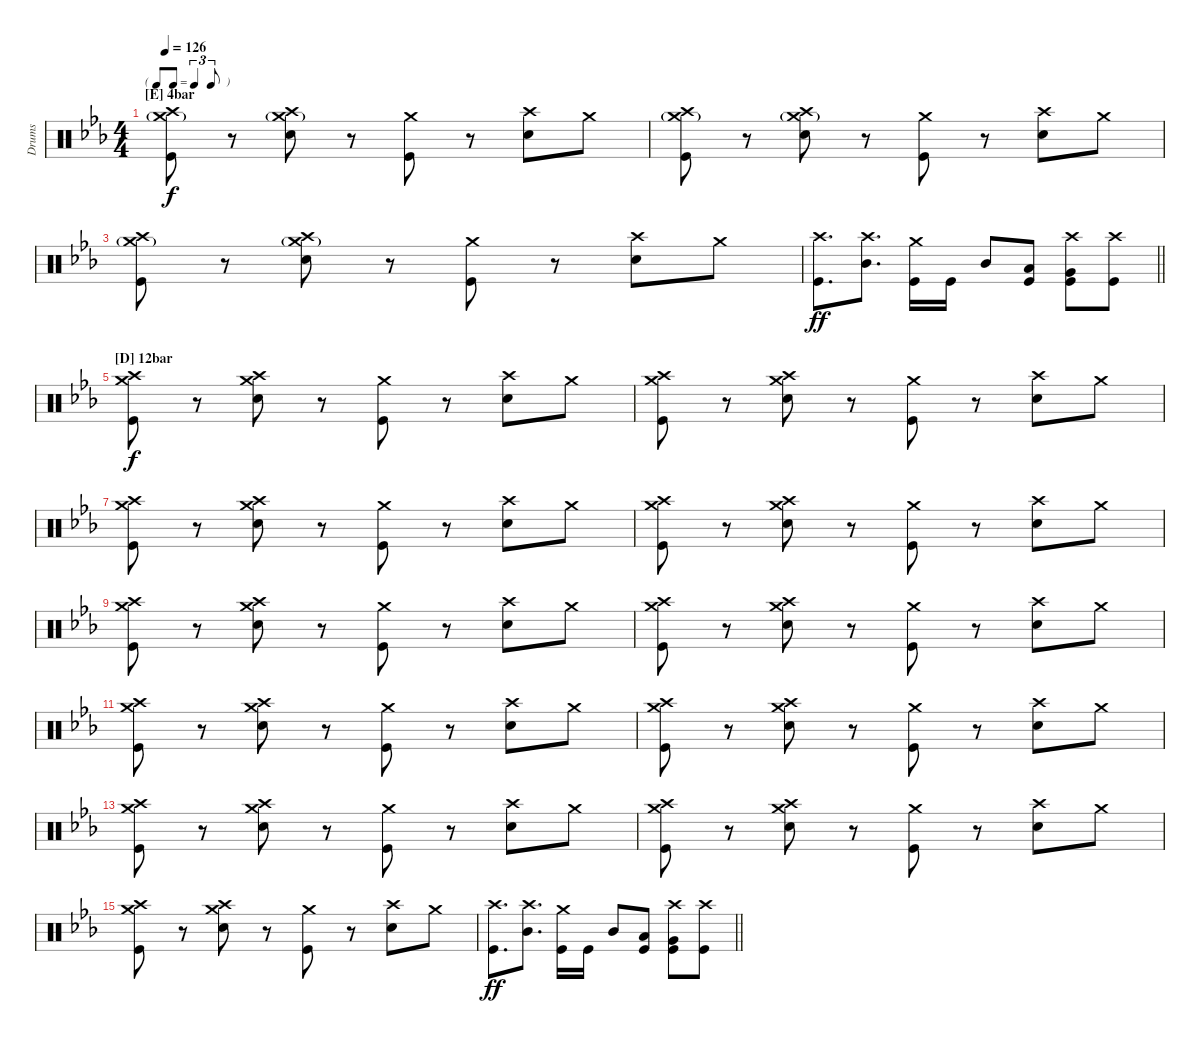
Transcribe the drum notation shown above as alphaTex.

\bracketExtendMode nobrackets
\otherSystemsTrackNameOrientation horizontal
\defaultBarNumberDisplay FirstOfSystem
\track ("Drumkit" "Drums") {instrument percussion}
\staff {score}
\articulation defaults
\ts (4 4)
\tf triplet8th
\section ("E" "4bar")
\tempo 126
\clef neutral
\ks cminor
("Kick (hit)" "Crash medium (hit)"{g} "Crash high (hit)").8{dy f} r.8 ("Snare (hit) 2" "Crash medium (hit)"{g} "Crash high (hit)").8 r.8 ("Kick (hit)" "Crash medium (hit)").8 r.8 ("Snare (hit) 2" "Crash high (hit)").8 "Crash medium (hit)".8 |
("Kick (hit)" "Crash medium (hit)"{g} "Crash high (hit)").8 r.8 ("Snare (hit) 2" "Crash medium (hit)"{g} "Crash high (hit)").8 r.8 ("Kick (hit)" "Crash medium (hit)").8 r.8 ("Snare (hit) 2" "Crash high (hit)").8 "Crash medium (hit)".8 |
("Kick (hit)" "Crash medium (hit)"{g} "Crash high (hit)").8 r.8 ("Snare (hit) 2" "Crash medium (hit)"{g} "Crash high (hit)").8 r.8 ("Kick (hit)" "Crash medium (hit)").8 r.8 ("Snare (hit) 2" "Crash high (hit)").8 "Crash medium (hit)".8 |
\barLineRight lightlight
("Kick (hit)" "Crash high (hit)").8{d dy ff} ("Mid Tom (hit)" "Crash high (hit)").8{d} ("Kick (hit)" "Crash medium (hit)").16 "Kick (hit)".16 "Mid Tom (hit)".8 ("Low Tom (hit)" "Kick (hit)").8 ("Kick (hit)" "Very Low Tom (hit)" "Crash high (hit)").8 ("Kick (hit)" "Crash high (hit)").8 |
\section ("D" "12bar")
("Kick (hit)" "Crash medium (hit)" "Crash high (hit)").8{dy f} r.8 ("Snare (hit) 2" "Crash medium (hit)" "Crash high (hit)").8 r.8 ("Kick (hit)" "Crash medium (hit)").8 r.8 ("Snare (hit) 2" "Crash high (hit)").8 "Crash medium (hit)".8 |
("Kick (hit)" "Crash medium (hit)" "Crash high (hit)").8 r.8 ("Snare (hit) 2" "Crash medium (hit)" "Crash high (hit)").8 r.8 ("Kick (hit)" "Crash medium (hit)").8 r.8 ("Snare (hit) 2" "Crash high (hit)").8 "Crash medium (hit)".8 |
("Kick (hit)" "Crash medium (hit)" "Crash high (hit)").8 r.8 ("Snare (hit) 2" "Crash medium (hit)" "Crash high (hit)").8 r.8 ("Kick (hit)" "Crash medium (hit)").8 r.8 ("Snare (hit) 2" "Crash high (hit)").8 "Crash medium (hit)".8 |
("Kick (hit)" "Crash medium (hit)" "Crash high (hit)").8 r.8 ("Snare (hit) 2" "Crash medium (hit)" "Crash high (hit)").8 r.8 ("Kick (hit)" "Crash medium (hit)").8 r.8 ("Snare (hit) 2" "Crash high (hit)").8 "Crash medium (hit)".8 |
("Kick (hit)" "Crash medium (hit)" "Crash high (hit)").8 r.8 ("Snare (hit) 2" "Crash medium (hit)" "Crash high (hit)").8 r.8 ("Kick (hit)" "Crash medium (hit)").8 r.8 ("Snare (hit) 2" "Crash high (hit)").8 "Crash medium (hit)".8 |
("Kick (hit)" "Crash medium (hit)" "Crash high (hit)").8 r.8 ("Snare (hit) 2" "Crash medium (hit)" "Crash high (hit)").8 r.8 ("Kick (hit)" "Crash medium (hit)").8 r.8 ("Snare (hit) 2" "Crash high (hit)").8 "Crash medium (hit)".8 |
("Kick (hit)" "Crash medium (hit)" "Crash high (hit)").8 r.8 ("Snare (hit) 2" "Crash medium (hit)" "Crash high (hit)").8 r.8 ("Kick (hit)" "Crash medium (hit)").8 r.8 ("Snare (hit) 2" "Crash high (hit)").8 "Crash medium (hit)".8 |
("Kick (hit)" "Crash medium (hit)" "Crash high (hit)").8 r.8 ("Snare (hit) 2" "Crash medium (hit)" "Crash high (hit)").8 r.8 ("Kick (hit)" "Crash medium (hit)").8 r.8 ("Snare (hit) 2" "Crash high (hit)").8 "Crash medium (hit)".8 |
("Kick (hit)" "Crash medium (hit)" "Crash high (hit)").8 r.8 ("Snare (hit) 2" "Crash medium (hit)" "Crash high (hit)").8 r.8 ("Kick (hit)" "Crash medium (hit)").8 r.8 ("Snare (hit) 2" "Crash high (hit)").8 "Crash medium (hit)".8 |
("Kick (hit)" "Crash medium (hit)" "Crash high (hit)").8 r.8 ("Snare (hit) 2" "Crash medium (hit)" "Crash high (hit)").8 r.8 ("Kick (hit)" "Crash medium (hit)").8 r.8 ("Snare (hit) 2" "Crash high (hit)").8 "Crash medium (hit)".8 |
("Kick (hit)" "Crash medium (hit)" "Crash high (hit)").8 r.8 ("Snare (hit) 2" "Crash medium (hit)" "Crash high (hit)").8 r.8 ("Kick (hit)" "Crash medium (hit)").8 r.8 ("Snare (hit) 2" "Crash high (hit)").8 "Crash medium (hit)".8 |
\barLineRight lightlight
("Kick (hit)" "Crash high (hit)").8{d dy ff} ("Mid Tom (hit)" "Crash high (hit)").8{d} ("Kick (hit)" "Crash medium (hit)").16 "Kick (hit)".16 "Mid Tom (hit)".8 ("Low Tom (hit)" "Kick (hit)").8 ("Kick (hit)" "Very Low Tom (hit)" "Crash high (hit)").8 ("Kick (hit)" "Crash high (hit)").8
